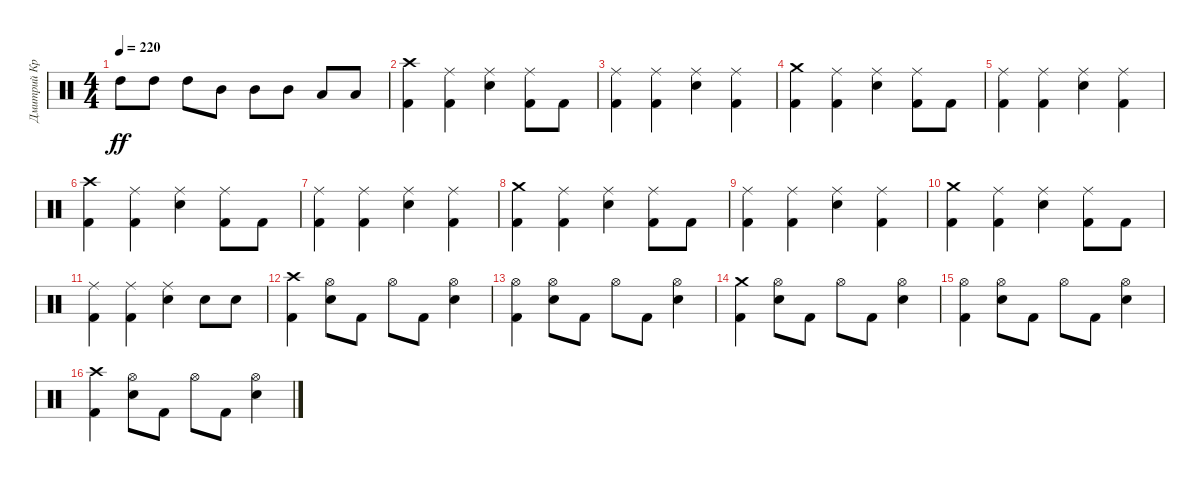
\track ("Дмитрий Кривенков" "Дмитрий Кр") {instrument percussion}
\staff {score}
\articulation defaults
\ts (4 4)
\tempo 220
\clef neutral
\ks c "High Tom (hit)".8{dy ff} "High Tom (hit)".8 "High Tom (hit)".8 "Mid Tom (hit)".8 "Mid Tom (hit)".8 "Mid Tom (hit)".8 "Low Tom (hit)".8 "Low Tom (hit)".8
|
("Crash high (hit)" "Kick (hit) 2").4 ("Ride (middle)" "Kick (hit) 2").4 ("Ride (middle)" "Snare (hit) 2").4 ("Ride (middle)" "Kick (hit) 2").8 "Kick (hit) 2".8 |
("Ride (middle)" "Kick (hit) 2").4 ("Ride (middle)" "Kick (hit) 2").4 ("Ride (middle)" "Snare (hit) 2").4 ("Ride (middle)" "Kick (hit) 2").4 |
("Crash medium (hit)" "Kick (hit) 2").4 ("Ride (middle)" "Kick (hit) 2").4 ("Ride (middle)" "Snare (hit) 2").4 ("Ride (middle)" "Kick (hit) 2").8 "Kick (hit) 2".8 |
("Ride (middle)" "Kick (hit) 2").4 ("Ride (middle)" "Kick (hit) 2").4 ("Ride (middle)" "Snare (hit) 2").4 ("Ride (middle)" "Kick (hit) 2").4 |
("Crash high (hit)" "Kick (hit) 2").4 ("Ride (middle)" "Kick (hit) 2").4 ("Ride (middle)" "Snare (hit) 2").4 ("Ride (middle)" "Kick (hit) 2").8 "Kick (hit) 2".8 |
("Ride (middle)" "Kick (hit) 2").4 ("Ride (middle)" "Kick (hit) 2").4 ("Ride (middle)" "Snare (hit) 2").4 ("Ride (middle)" "Kick (hit) 2").4 |
("Crash medium (hit)" "Kick (hit) 2").4 ("Ride (middle)" "Kick (hit) 2").4 ("Ride (middle)" "Snare (hit) 2").4 ("Ride (middle)" "Kick (hit) 2").8 "Kick (hit) 2".8 |
("Ride (middle)" "Kick (hit) 2").4 ("Ride (middle)" "Kick (hit) 2").4 ("Ride (middle)" "Snare (hit) 2").4 ("Ride (middle)" "Kick (hit) 2").4 |
("Crash medium (hit)" "Kick (hit) 2").4 ("Ride (middle)" "Kick (hit) 2").4 ("Ride (middle)" "Snare (hit) 2").4 ("Ride (middle)" "Kick (hit) 2").8 "Kick (hit) 2".8 |
("Ride (middle)" "Kick (hit) 2").4 ("Ride (middle)" "Kick (hit) 2").4 ("Ride (middle)" "Snare (hit) 2").4 "Snare (hit) 2".8 "Snare (hit) 2".8 |
("Crash high (hit)" "Kick (hit) 2").4 ("Hi-Hat (open)" "Snare (hit) 2").8 "Kick (hit) 2".8 "Hi-Hat (open)".8 "Kick (hit) 2".8 ("Hi-Hat (open)" "Snare (hit) 2").4 |
("Kick (hit) 2" "Hi-Hat (open)").4 ("Snare (hit) 2" "Hi-Hat (open)").8 "Kick (hit) 2".8 "Hi-Hat (open)".8 "Kick (hit) 2".8 ("Hi-Hat (open)" "Snare (hit) 2").4 |
("Crash medium (hit)" "Kick (hit) 2").4 ("Hi-Hat (open)" "Snare (hit) 2").8 "Kick (hit) 2".8 "Hi-Hat (open)".8 "Kick (hit) 2".8 ("Hi-Hat (open)" "Snare (hit) 2").4 |
("Kick (hit) 2" "Hi-Hat (open)").4 ("Snare (hit) 2" "Hi-Hat (open)").8 "Kick (hit) 2".8 "Hi-Hat (open)".8 "Kick (hit) 2".8 ("Hi-Hat (open)" "Snare (hit) 2").4 |
("Crash high (hit)" "Kick (hit) 2").4 ("Hi-Hat (open)" "Snare (hit) 2").8 "Kick (hit) 2".8 "Hi-Hat (open)".8 "Kick (hit) 2".8 ("Hi-Hat (open)" "Snare (hit) 2").4
